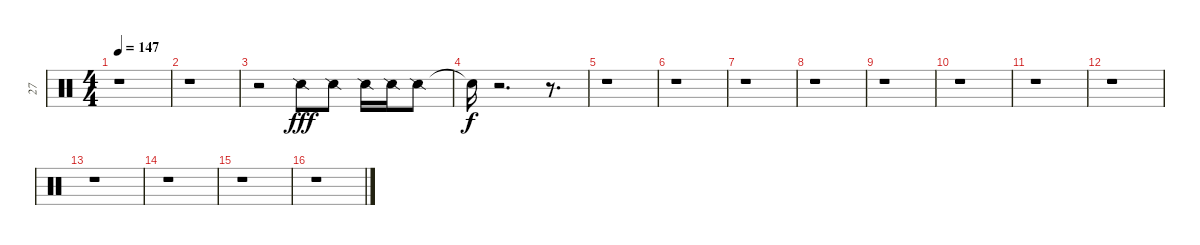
\track ("27" "27") {instrument percussion}
\staff {score}
\articulation defaults
\ts (4 4)
\tempo 147
\clef neutral
\ks c
r.1{dy f} |
r.1 |
r.2 "Snare (side stick) 2".8{dy fff} "Snare (side stick) 2".8 "Snare (side stick) 2".16 "Snare (side stick) 2".16 "Snare (side stick) 2".8 |
"Snare (hit)"{t}.16{dy f} r.2{d} r.8{d} |
r.1 |
r.1 |
r.1 |
r.1 |
r.1 |
r.1 |
r.1 |
r.1 |
r.1 |
r.1 |
r.1 |
r.1
